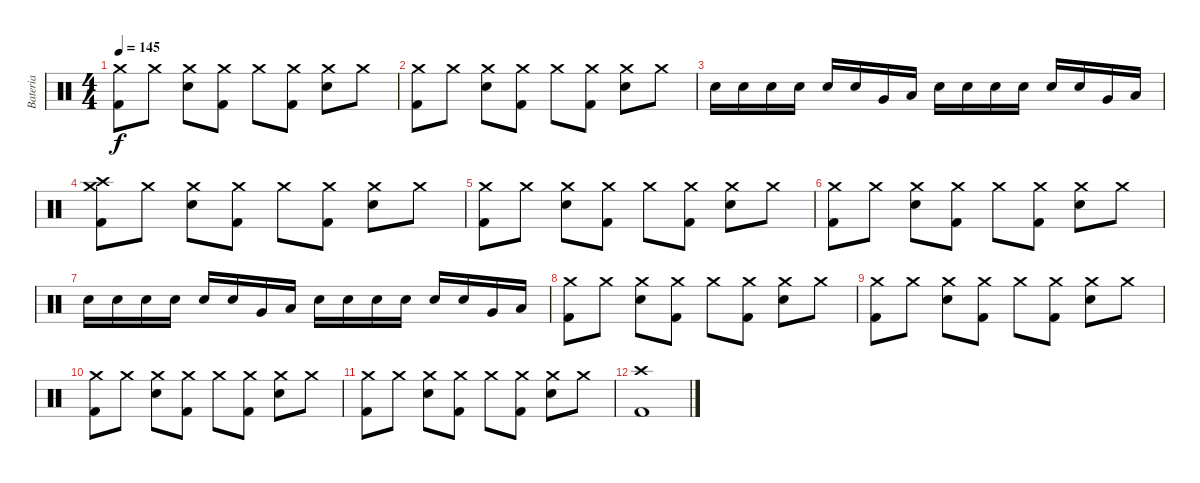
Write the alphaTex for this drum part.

\track ("Bateria" "Bateria") {instrument percussion}
\staff {score}
\articulation defaults
\ts (4 4)
\tempo 145
\clef neutral
\ks c
("Kick (hit) 2" "Crash medium (hit)").8{dy f} "Crash medium (hit)".8 ("Snare (hit) 2" "Crash medium (hit)").8 ("Kick (hit) 2" "Crash medium (hit)").8 "Crash medium (hit)".8 ("Kick (hit) 2" "Crash medium (hit)").8 ("Snare (hit) 2" "Crash medium (hit)").8 "Crash medium (hit)".8 |
("Kick (hit) 2" "Crash medium (hit)").8 "Crash medium (hit)".8 ("Snare (hit) 2" "Crash medium (hit)").8 ("Kick (hit) 2" "Crash medium (hit)").8 "Crash medium (hit)".8 ("Kick (hit) 2" "Crash medium (hit)").8 ("Snare (hit) 2" "Crash medium (hit)").8 "Crash medium (hit)".8 |
"Snare (hit) 2".16 "Snare (hit) 2".16 "Snare (hit) 2".16 "Snare (hit) 2".16 "Snare (hit) 2".16 "Electric Snare (hit)".16 "Very Low Tom (hit)".16 "Low Floor Tom (hit)".16 "Snare (hit) 2".16 "Snare (hit) 2".16 "Snare (hit) 2".16 "Snare (hit) 2".16 "Snare (hit) 2".16 "Electric Snare (hit)".16 "Very Low Tom (hit)".16 "Low Floor Tom (hit)".16 |
("Kick (hit) 2" "Crash medium (hit)" "Crash high (hit)").8 "Crash medium (hit)".8 ("Snare (hit) 2" "Crash medium (hit)").8 ("Kick (hit) 2" "Crash medium (hit)").8 "Crash medium (hit)".8 ("Kick (hit) 2" "Crash medium (hit)").8 ("Snare (hit) 2" "Crash medium (hit)").8 "Crash medium (hit)".8 |
("Kick (hit) 2" "Crash medium (hit)").8 "Crash medium (hit)".8 ("Snare (hit) 2" "Crash medium (hit)").8 ("Kick (hit) 2" "Crash medium (hit)").8 "Crash medium (hit)".8 ("Kick (hit) 2" "Crash medium (hit)").8 ("Snare (hit) 2" "Crash medium (hit)").8 "Crash medium (hit)".8 |
("Kick (hit) 2" "Crash medium (hit)").8 "Crash medium (hit)".8 ("Snare (hit) 2" "Crash medium (hit)").8 ("Kick (hit) 2" "Crash medium (hit)").8 "Crash medium (hit)".8 ("Kick (hit) 2" "Crash medium (hit)").8 ("Snare (hit) 2" "Crash medium (hit)").8 "Crash medium (hit)".8 |
"Snare (hit) 2".16 "Snare (hit) 2".16 "Snare (hit) 2".16 "Snare (hit) 2".16 "Snare (hit) 2".16 "Electric Snare (hit)".16 "Very Low Tom (hit)".16 "Low Floor Tom (hit)".16 "Snare (hit) 2".16 "Snare (hit) 2".16 "Snare (hit) 2".16 "Snare (hit) 2".16 "Snare (hit) 2".16 "Electric Snare (hit)".16 "Very Low Tom (hit)".16 "Low Floor Tom (hit)".16 |
("Kick (hit) 2" "Crash medium (hit)").8 "Crash medium (hit)".8 ("Snare (hit) 2" "Crash medium (hit)").8 ("Kick (hit) 2" "Crash medium (hit)").8 "Crash medium (hit)".8 ("Kick (hit) 2" "Crash medium (hit)").8 ("Snare (hit) 2" "Crash medium (hit)").8 "Crash medium (hit)".8 |
("Kick (hit) 2" "Crash medium (hit)").8 "Crash medium (hit)".8 ("Snare (hit) 2" "Crash medium (hit)").8 ("Kick (hit) 2" "Crash medium (hit)").8 "Crash medium (hit)".8 ("Kick (hit) 2" "Crash medium (hit)").8 ("Snare (hit) 2" "Crash medium (hit)").8 "Crash medium (hit)".8 |
("Kick (hit) 2" "Crash medium (hit)").8 "Crash medium (hit)".8 ("Snare (hit) 2" "Crash medium (hit)").8 ("Kick (hit) 2" "Crash medium (hit)").8 "Crash medium (hit)".8 ("Kick (hit) 2" "Crash medium (hit)").8 ("Snare (hit) 2" "Crash medium (hit)").8 "Crash medium (hit)".8 |
("Kick (hit) 2" "Crash medium (hit)").8 "Crash medium (hit)".8 ("Snare (hit) 2" "Crash medium (hit)").8 ("Kick (hit) 2" "Crash medium (hit)").8 "Crash medium (hit)".8 ("Kick (hit) 2" "Crash medium (hit)").8 ("Snare (hit) 2" "Crash medium (hit)").8 "Crash medium (hit)".8 |
("Kick (hit) 2" "Crash high (hit)").1
